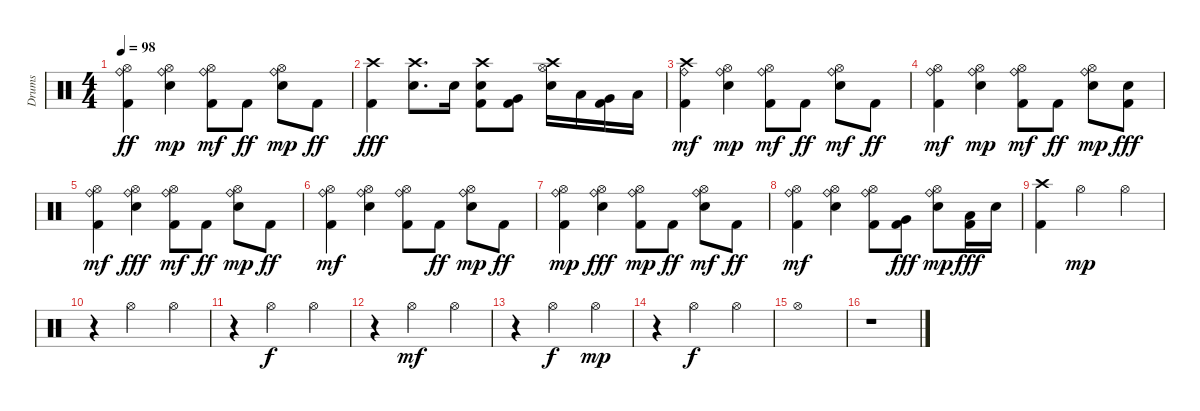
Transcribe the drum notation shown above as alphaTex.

\track ("Drums" "Drums") {instrument percussion}
\staff {score}
\articulation defaults
\ts (4 4)
\tempo 98
\clef neutral
\ks c
("Kick (hit) 2" "Hi-Hat (open)" "Ride (bell)").4{dy ff} ("Electric Snare (hit)" "Hi-Hat (open)" "Ride (bell)").4{dy mp} ("Kick (hit) 2" "Hi-Hat (open)" "Ride (bell)").8{dy mf} "Kick (hit) 2".8{dy ff} ("Electric Snare (hit)" "Hi-Hat (open)" "Ride (bell)").8{dy mp} "Kick (hit) 2".8{dy ff} |
("Kick (hit) 2" "Crash high (hit)").4{dy fff} ("Electric Snare (hit)" "Crash high (hit)").8{d} "Electric Snare (hit)".16 ("Kick (hit) 2" "Electric Snare (hit)" "Crash high (hit)").8 ("Kick (hit) 2" "Very Low Tom (hit)").8 ("Electric Snare (hit)" "Hi-Hat (open)" "Crash high (hit)").16 "Low Tom (hit)".16 ("Kick (hit) 2" "Very Low Tom (hit)").16 "Low Floor Tom (hit)".16 |
("Kick (hit) 2" "Crash high (hit)" "Ride (bell)").4{dy mf} ("Electric Snare (hit)" "Hi-Hat (open)" "Ride (bell)").4{dy mp} ("Kick (hit) 2" "Hi-Hat (open)" "Ride (bell)").8{dy mf} "Kick (hit) 2".8{dy ff} ("Electric Snare (hit)" "Hi-Hat (open)" "Ride (bell)").8{dy mf} "Kick (hit) 2".8{dy ff} |
("Kick (hit) 2" "Hi-Hat (open)" "Ride (bell)").4{dy mf} ("Electric Snare (hit)" "Hi-Hat (open)" "Ride (bell)").4{dy mp} ("Kick (hit) 2" "Hi-Hat (open)" "Ride (bell)").8{dy mf} "Kick (hit) 2".8{dy ff} ("Electric Snare (hit)" "Hi-Hat (open)" "Ride (bell)").8{dy mp} ("Kick (hit) 2" "Electric Snare (hit)").8{dy fff} |
("Kick (hit) 2" "Hi-Hat (open)" "Ride (bell)").4{dy mf} ("Electric Snare (hit)" "Hi-Hat (open)" "Ride (bell)").4{dy fff} ("Kick (hit) 2" "Hi-Hat (open)" "Ride (bell)").8{dy mf} "Kick (hit) 2".8{dy ff} ("Electric Snare (hit)" "Hi-Hat (open)" "Ride (bell)").8{dy mp} "Kick (hit) 2".8{dy ff} |
("Kick (hit) 2" "Hi-Hat (open)" "Ride (bell)").4{dy mf} ("Electric Snare (hit)" "Hi-Hat (open)" "Ride (bell)").4 ("Kick (hit) 2" "Hi-Hat (open)" "Ride (bell)").8 "Kick (hit) 2".8{dy ff} ("Electric Snare (hit)" "Hi-Hat (open)" "Ride (bell)").8{dy mp} "Kick (hit) 2".8{dy ff} |
("Kick (hit) 2" "Hi-Hat (open)" "Ride (bell)").4{dy mp} ("Electric Snare (hit)" "Hi-Hat (open)" "Ride (bell)").4{dy fff} ("Kick (hit) 2" "Hi-Hat (open)" "Ride (bell)").8{dy mp} "Kick (hit) 2".8{dy ff} ("Electric Snare (hit)" "Hi-Hat (open)" "Ride (bell)").8{dy mf} "Kick (hit) 2".8{dy ff} |
("Kick (hit) 2" "Hi-Hat (open)" "Ride (bell)").4{dy mf} ("Electric Snare (hit)" "Hi-Hat (open)" "Ride (bell)").4 ("Kick (hit) 2" "Hi-Hat (open)" "Ride (bell)").8 ("Kick (hit) 2" "Very Low Tom (hit)").8{dy fff} ("Electric Snare (hit)" "Hi-Hat (open)" "Ride (bell)").8{dy mp} ("Kick (hit) 2" "Low Floor Tom (hit)").16{dy fff} "Electric Snare (hit)".16 |
("Kick (hit) 2" "Crash high (hit)").4 "Hi-Hat (open)".2{dy mp} "Hi-Hat (open)".4 |
r.4 "Hi-Hat (open)".2 "Hi-Hat (open)".4 |
r.4 "Hi-Hat (open)".2{dy f} "Hi-Hat (open)".4 |
r.4 "Hi-Hat (open)".2{dy mf} "Hi-Hat (open)".4 |
r.4 "Hi-Hat (open)".2{dy f} "Hi-Hat (open)".4{dy mp} |
r.4 "Hi-Hat (open)".2{dy f} "Hi-Hat (open)".4 |
"Hi-Hat (open)".1 |
r.1
